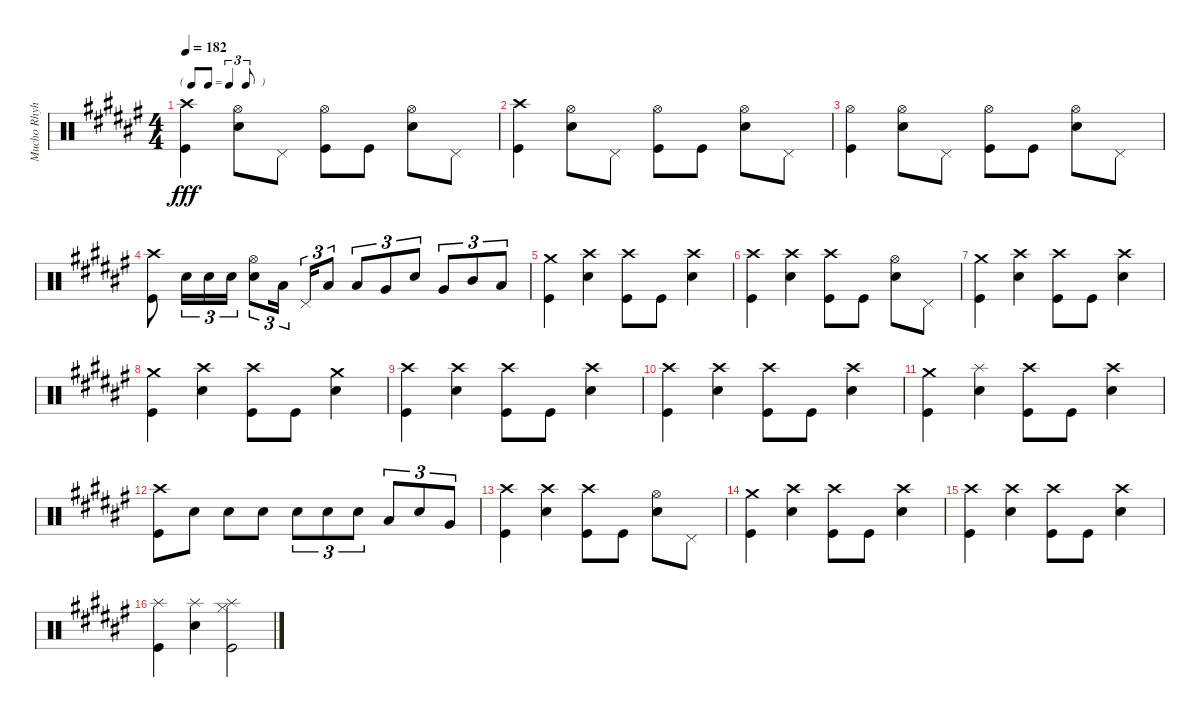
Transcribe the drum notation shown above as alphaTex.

\track ("Mucho Rhyhtm" "Mucho Rhyh") {instrument percussion}
\staff {score}
\articulation defaults
\ts (4 4)
\tf triplet8th
\tempo 182
\clef neutral
\ks f#
("Crash high (hit)" "Kick (hit)").4{dy fff} ("Hi-Hat (open)" "Snare (hit) 2").8 "Pedal Hi-Hat (hit)".8 ("Hi-Hat (open)" "Kick (hit)").8 "Kick (hit)".8 ("Hi-Hat (open)" "Snare (hit) 2").8 "Pedal Hi-Hat (hit)".8 |
("Crash high (hit)" "Kick (hit)").4 ("Hi-Hat (open)" "Snare (hit) 2").8 "Pedal Hi-Hat (hit)".8 ("Hi-Hat (open)" "Kick (hit)").8 "Kick (hit)".8 ("Hi-Hat (open)" "Snare (hit) 2").8 "Pedal Hi-Hat (hit)".8 |
("Hi-Hat (open)" "Kick (hit)").4 ("Hi-Hat (open)" "Snare (hit) 2").8 "Pedal Hi-Hat (hit)".8 ("Hi-Hat (open)" "Kick (hit)").8 "Kick (hit)".8 ("Hi-Hat (open)" "Snare (hit) 2").8 "Pedal Hi-Hat (hit)".8 |
("Crash high (hit)" "Kick (hit)").8 "Snare (hit) 2".16{tu (3 2)} "Snare (hit) 2".16{tu (3 2)} "Snare (hit) 2".16{tu (3 2)} ("Hi-Hat (open)" "Snare (hit) 2").8{tu (3 2)} "Low Tom (hit)".16{tu (3 2)} "Pedal Hi-Hat (hit)".16{tu (3 2)} "Low Tom (hit)".8{tu (3 2)} "Low Tom (hit)".8{tu (3 2)} "Very Low Tom (hit)".8{tu (3 2)} "Snare (hit) 2".8{tu (3 2)} "Very Low Tom (hit)".8{tu (3 2)} "Mid Tom (hit)".8{tu (3 2)} "Low Floor Tom (hit)".8{tu (3 2)} |
("Crash medium (hit)" "Kick (hit)").4 ("Crash high (hit)" "Snare (hit) 2").4 ("Crash high (hit)" "Kick (hit)").8 "Kick (hit)".8 ("Crash high (hit)" "Snare (hit) 2").4 |
("Crash high (hit)" "Kick (hit)").4 ("Crash high (hit)" "Snare (hit) 2").4 ("Crash high (hit)" "Kick (hit)").8 "Kick (hit)".8 ("Hi-Hat (open)" "Snare (hit) 2").8 "Pedal Hi-Hat (hit)".8 |
("Crash medium (hit)" "Kick (hit)").4 ("Crash high (hit)" "Snare (hit) 2").4 ("Crash high (hit)" "Kick (hit)").8 "Kick (hit)".8 ("Crash high (hit)" "Snare (hit) 2").4 |
("Crash medium (hit)" "Kick (hit)").4 ("Crash high (hit)" "Snare (hit) 2").4 ("Crash high (hit)" "Kick (hit)").8 "Kick (hit)".8 ("Crash medium (hit)" "Snare (hit) 2").4 |
("Crash high (hit)" "Kick (hit)").4 ("Crash high (hit)" "Snare (hit) 2").4 ("Crash high (hit)" "Kick (hit)").8 "Kick (hit)".8 ("Crash high (hit)" "Snare (hit) 2").4 |
("Crash high (hit)" "Kick (hit)").4 ("Crash high (hit)" "Snare (hit) 2").4 ("Crash high (hit)" "Kick (hit)").8 "Kick (hit)".8 ("Crash high (hit)" "Snare (hit) 2").4 |
("Crash medium (hit)" "Kick (hit)").4 ("Splash (hit)" "Snare (hit) 2").4 ("Crash high (hit)" "Kick (hit)").8 "Kick (hit)".8 ("Crash high (hit)" "Snare (hit) 2").4 |
("Crash high (hit)" "Kick (hit)").8 "Snare (hit) 2".8 "Snare (hit) 2".8 "Snare (hit) 2".8 "Snare (hit) 2".8{tu (3 2)} "Snare (hit) 2".8{tu (3 2)} "Snare (hit) 2".8{tu (3 2)} "Low Tom (hit)".8{tu (3 2)} "Snare (hit) 2".8{tu (3 2)} "Very Low Tom (hit)".8{tu (3 2)} |
("Crash high (hit)" "Kick (hit)").4 ("Crash high (hit)" "Snare (hit) 2").4 ("Crash high (hit)" "Kick (hit)").8 "Kick (hit)".8 ("Hi-Hat (open)" "Snare (hit) 2").8 "Pedal Hi-Hat (hit)".8 |
("Crash medium (hit)" "Kick (hit)").4 ("Crash high (hit)" "Snare (hit) 2").4 ("Crash high (hit)" "Kick (hit)").8 "Kick (hit)".8 ("Crash high (hit)" "Snare (hit) 2").4 |
("Crash high (hit)" "Kick (hit)").4 ("Crash high (hit)" "Snare (hit) 2").4 ("Crash high (hit)" "Kick (hit)").8 "Kick (hit)".8 ("Crash high (hit)" "Snare (hit) 2").4 |
("Splash (hit)" "Kick (hit)").4 ("Splash (hit)" "Snare (hit) 2").4 ("Hi-Hat (closed)" "Splash (hit)" "Kick (hit)").2
